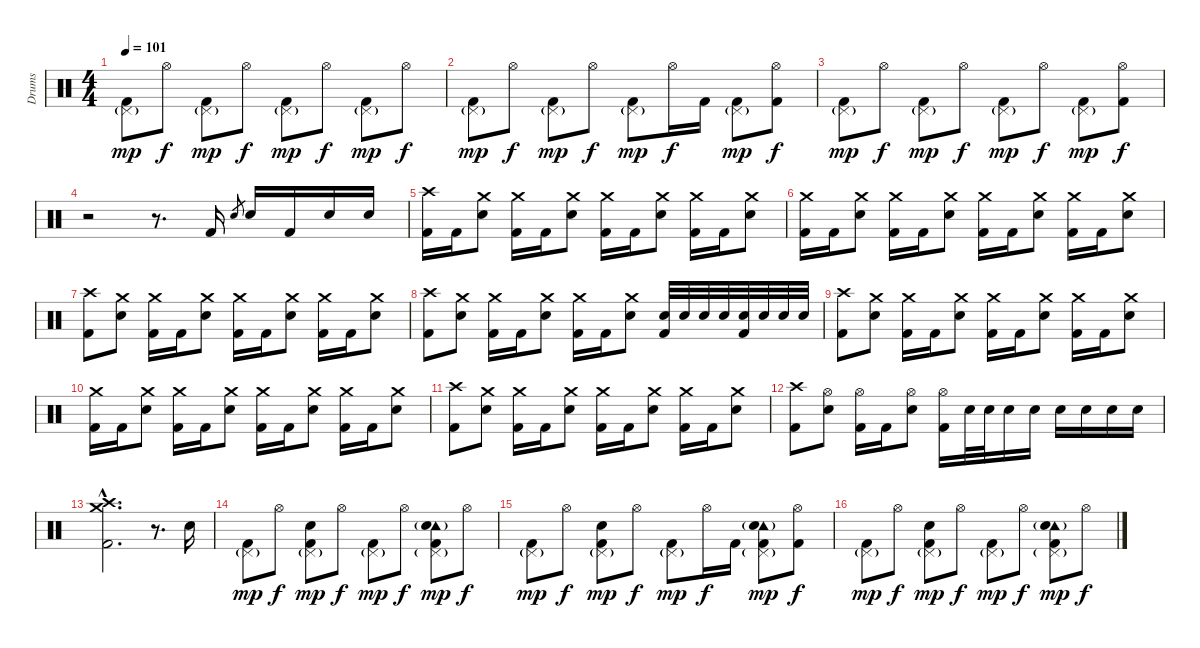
\track ("Drums" "Drums") {instrument percussion}
\staff {score}
\articulation defaults
\ts (4 4)
\tempo 101
\clef neutral
\ks c
("Pedal Hi-Hat (hit)"{g} "Kick (hit) 2").8{dy mp} "Hi-Hat (open)".8{dy f} ("Pedal Hi-Hat (hit)"{g} "Kick (hit) 2").8{dy mp} "Hi-Hat (open)".8{dy f} ("Pedal Hi-Hat (hit)"{g} "Kick (hit) 2").8{dy mp} "Hi-Hat (open)".8{dy f} ("Pedal Hi-Hat (hit)"{g} "Kick (hit) 2").8{dy mp} "Hi-Hat (open)".8{dy f} |
("Pedal Hi-Hat (hit)"{g} "Kick (hit) 2").8{dy mp} "Hi-Hat (open)".8{dy f} ("Pedal Hi-Hat (hit)"{g} "Kick (hit) 2").8{dy mp} "Hi-Hat (open)".8{dy f} ("Pedal Hi-Hat (hit)"{g} "Kick (hit) 2").8{dy mp} "Hi-Hat (open)".16{dy f} "Kick (hit) 2".16 ("Pedal Hi-Hat (hit)"{g} "Kick (hit) 2").8{dy mp} ("Hi-Hat (open)" "Kick (hit) 2").8{dy f} |
("Pedal Hi-Hat (hit)"{g} "Kick (hit) 2").8{dy mp} "Hi-Hat (open)".8{dy f} ("Pedal Hi-Hat (hit)"{g} "Kick (hit) 2").8{dy mp} "Hi-Hat (open)".8{dy f} ("Pedal Hi-Hat (hit)"{g} "Kick (hit) 2").8{dy mp} "Hi-Hat (open)".8{dy f} ("Pedal Hi-Hat (hit)"{g} "Kick (hit) 2").8{dy mp} ("Hi-Hat (open)" "Kick (hit) 2").8{dy f} |
r.2 r.8{d} "Kick (hit) 2".16 "Snare (hit) 2".8{gr} "Snare (hit) 2".16 "Kick (hit) 2".16 "Snare (hit) 2".16 "Snare (hit) 2".16 |
("Crash high (hit)" "Kick (hit) 2").16 "Kick (hit) 2".16 ("Crash medium (hit)" "Snare (hit) 2").8 ("Crash medium (hit)" "Kick (hit) 2").16 "Kick (hit) 2".16 ("Crash medium (hit)" "Snare (hit) 2").8 ("Crash medium (hit)" "Kick (hit) 2").16 "Kick (hit) 2".16 ("Crash medium (hit)" "Snare (hit) 2").8 ("Crash medium (hit)" "Kick (hit) 2").16 "Kick (hit) 2".16 ("Crash medium (hit)" "Snare (hit) 2").8 |
("Crash medium (hit)" "Kick (hit) 2").16 "Kick (hit) 2".16 ("Crash medium (hit)" "Snare (hit) 2").8 ("Crash medium (hit)" "Kick (hit) 2").16 "Kick (hit) 2".16 ("Crash medium (hit)" "Snare (hit) 2").8 ("Crash medium (hit)" "Kick (hit) 2").16 "Kick (hit) 2".16 ("Crash medium (hit)" "Snare (hit) 2").8 ("Crash medium (hit)" "Kick (hit) 2").16 "Kick (hit) 2".16 ("Crash medium (hit)" "Snare (hit) 2").8 |
("Crash high (hit)" "Kick (hit) 2").8 ("Crash medium (hit)" "Snare (hit) 2").8 ("Crash medium (hit)" "Kick (hit) 2").16 "Kick (hit) 2".16 ("Crash medium (hit)" "Snare (hit) 2").8 ("Crash medium (hit)" "Kick (hit) 2").16 "Kick (hit) 2".16 ("Crash medium (hit)" "Snare (hit) 2").8 ("Crash medium (hit)" "Kick (hit) 2").16 "Kick (hit) 2".16 ("Crash medium (hit)" "Snare (hit) 2").8 |
("Crash high (hit)" "Kick (hit) 2").8 ("Crash medium (hit)" "Snare (hit) 2").8 ("Crash medium (hit)" "Kick (hit) 2").16 "Kick (hit) 2".16 ("Crash medium (hit)" "Snare (hit) 2").8 ("Crash medium (hit)" "Kick (hit) 2").16 "Kick (hit) 2".16 ("Crash medium (hit)" "Snare (hit) 2").8 ("Snare (hit) 2" "Kick (hit) 2").32 "Snare (hit) 2".32 "Snare (hit) 2".32 "Snare (hit) 2".32 ("Snare (hit) 2" "Kick (hit) 2").32 "Snare (hit) 2".32 "Snare (hit) 2".32 "Snare (hit) 2".32 |
("Crash high (hit)" "Kick (hit) 2").8 ("Crash medium (hit)" "Snare (hit) 2").8 ("Crash medium (hit)" "Kick (hit) 2").16 "Kick (hit) 2".16 ("Crash medium (hit)" "Snare (hit) 2").8 ("Crash medium (hit)" "Kick (hit) 2").16 "Kick (hit) 2".16 ("Crash medium (hit)" "Snare (hit) 2").8 ("Crash medium (hit)" "Kick (hit) 2").16 "Kick (hit) 2".16 ("Crash medium (hit)" "Snare (hit) 2").8 |
("Crash medium (hit)" "Kick (hit) 2").16 "Kick (hit) 2".16 ("Crash medium (hit)" "Snare (hit) 2").8 ("Crash medium (hit)" "Kick (hit) 2").16 "Kick (hit) 2".16 ("Crash medium (hit)" "Snare (hit) 2").8 ("Crash medium (hit)" "Kick (hit) 2").16 "Kick (hit) 2".16 ("Crash medium (hit)" "Snare (hit) 2").8 ("Crash medium (hit)" "Kick (hit) 2").16 "Kick (hit) 2".16 ("Crash medium (hit)" "Snare (hit) 2").8 |
("Crash high (hit)" "Kick (hit) 2").8 ("Crash medium (hit)" "Snare (hit) 2").8 ("Crash medium (hit)" "Kick (hit) 2").16 "Kick (hit) 2".16 ("Crash medium (hit)" "Snare (hit) 2").8 ("Crash medium (hit)" "Kick (hit) 2").16 "Kick (hit) 2".16 ("Crash medium (hit)" "Snare (hit) 2").8 ("Crash medium (hit)" "Kick (hit) 2").16 "Kick (hit) 2".16 ("Crash medium (hit)" "Snare (hit) 2").8 |
("Crash high (hit)" "Kick (hit) 2").8 ("Hi-Hat (open)" "Snare (hit) 2").8 ("Hi-Hat (open)" "Kick (hit) 2").16 "Kick (hit) 2".16 ("Hi-Hat (open)" "Snare (hit) 2").8 ("Hi-Hat (open)" "Kick (hit) 2").16 "Snare (hit) 2".32 "Snare (hit) 2".32 "Snare (hit) 2".16 "Snare (hit) 2".16 "Snare (hit) 2".16 "Snare (hit) 2".16 "Snare (hit) 2".16 "Snare (hit) 2".16 |
("Crash high (hit)"{hac} "Crash medium (hit)"{hac} "Kick (hit) 2"{hac}).2{d} r.8{d} "Snare (hit) 2".16 |
("Pedal Hi-Hat (hit)"{g} "Kick (hit) 2").8{dy mp} "Hi-Hat (open)".8{dy f} ("Pedal Hi-Hat (hit)"{g} "Snare (hit) 2" "Kick (hit) 2").8{dy mp} "Hi-Hat (open)".8{dy f} ("Pedal Hi-Hat (hit)"{g} "Kick (hit) 2").8{dy mp} "Hi-Hat (open)".8{dy f} ("Tambourine (hit)"{g} "Pedal Hi-Hat (hit)"{g} "Snare (hit) 2" "Kick (hit) 2").8{dy mp} "Hi-Hat (open)".8{dy f} |
("Pedal Hi-Hat (hit)"{g} "Kick (hit) 2").8{dy mp} "Hi-Hat (open)".8{dy f} ("Pedal Hi-Hat (hit)"{g} "Snare (hit) 2" "Kick (hit) 2").8{dy mp} "Hi-Hat (open)".8{dy f} ("Pedal Hi-Hat (hit)"{g} "Kick (hit) 2").8{dy mp} "Hi-Hat (open)".16{dy f} "Kick (hit) 2".16 ("Tambourine (hit)"{g} "Pedal Hi-Hat (hit)"{g} "Snare (hit) 2" "Kick (hit) 2").8{dy mp} ("Hi-Hat (open)" "Kick (hit) 2").8{dy f} |
("Pedal Hi-Hat (hit)"{g} "Kick (hit) 2").8{dy mp} "Hi-Hat (open)".8{dy f} ("Pedal Hi-Hat (hit)"{g} "Snare (hit) 2" "Kick (hit) 2").8{dy mp} "Hi-Hat (open)".8{dy f} ("Pedal Hi-Hat (hit)"{g} "Kick (hit) 2").8{dy mp} "Hi-Hat (open)".8{dy f} ("Tambourine (hit)"{g} "Pedal Hi-Hat (hit)"{g} "Snare (hit) 2" "Kick (hit) 2").8{dy mp} "Hi-Hat (open)".8{dy f}
